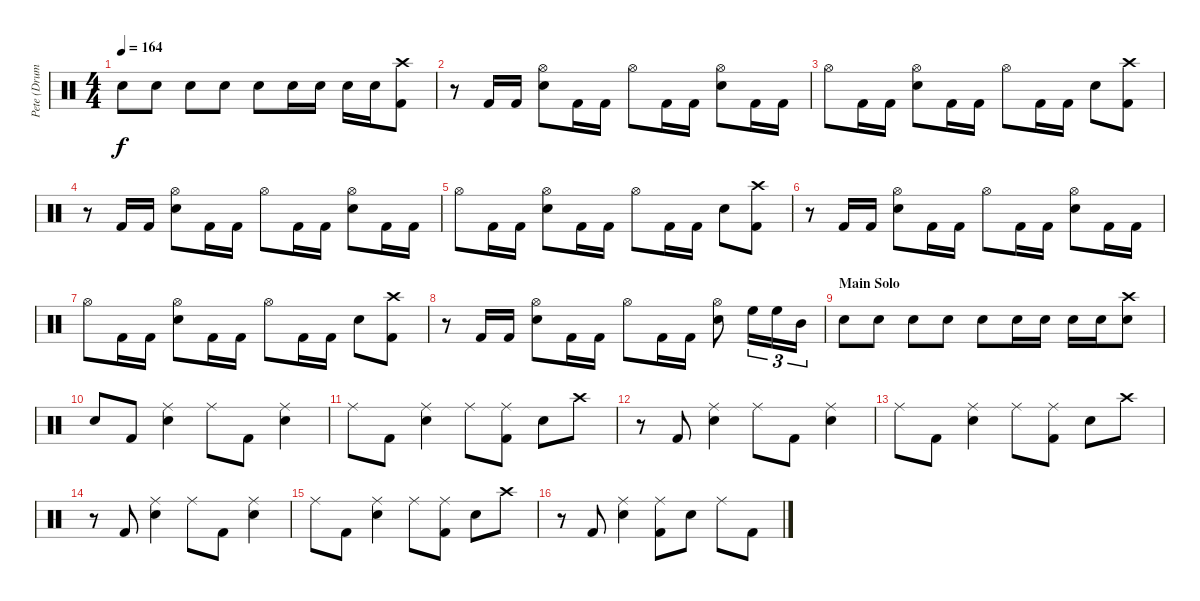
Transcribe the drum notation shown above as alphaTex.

\track ("Pete (Drums)" "Pete (Drum") {instrument percussion}
\staff {score}
\articulation defaults
\ts (4 4)
\tempo 164
\clef neutral
\ks c "Snare (hit) 2".8{dy f} "Snare (hit) 2".8 "Snare (hit) 2".8 "Snare (hit) 2".8 "Snare (hit) 2".8 "Snare (hit) 2".16 "Snare (hit) 2".16 "Snare (hit) 2".16 "Snare (hit) 2".16
("Crash high (hit)" "Kick (hit) 2").8 |
r.8 "Kick (hit) 2".16 "Kick (hit) 2".16 ("Hi-Hat (open)" "Snare (hit) 2").8 "Kick (hit) 2".16 "Kick (hit) 2".16 "Hi-Hat (open)".8 "Kick (hit) 2".16 "Kick (hit) 2".16 ("Hi-Hat (open)" "Snare (hit) 2").8 "Kick (hit) 2".16 "Kick (hit) 2".16 |
"Hi-Hat (open)".8 "Kick (hit) 2".16 "Kick (hit) 2".16 ("Hi-Hat (open)" "Snare (hit) 2").8 "Kick (hit) 2".16 "Kick (hit) 2".16 "Hi-Hat (open)".8 "Kick (hit) 2".16 "Kick (hit) 2".16 "Snare (hit) 2".8 ("Crash high (hit)" "Kick (hit) 2").8 |
r.8 "Kick (hit) 2".16 "Kick (hit) 2".16 ("Hi-Hat (open)" "Snare (hit) 2").8 "Kick (hit) 2".16 "Kick (hit) 2".16 "Hi-Hat (open)".8 "Kick (hit) 2".16 "Kick (hit) 2".16 ("Hi-Hat (open)" "Snare (hit) 2").8 "Kick (hit) 2".16 "Kick (hit) 2".16 |
"Hi-Hat (open)".8 "Kick (hit) 2".16 "Kick (hit) 2".16 ("Hi-Hat (open)" "Snare (hit) 2").8 "Kick (hit) 2".16 "Kick (hit) 2".16 "Hi-Hat (open)".8 "Kick (hit) 2".16 "Kick (hit) 2".16 "Snare (hit) 2".8 ("Crash high (hit)" "Kick (hit) 2").8 |
r.8 "Kick (hit) 2".16 "Kick (hit) 2".16 ("Hi-Hat (open)" "Snare (hit) 2").8 "Kick (hit) 2".16 "Kick (hit) 2".16 "Hi-Hat (open)".8 "Kick (hit) 2".16 "Kick (hit) 2".16 ("Hi-Hat (open)" "Snare (hit) 2").8 "Kick (hit) 2".16 "Kick (hit) 2".16 |
"Hi-Hat (open)".8 "Kick (hit) 2".16 "Kick (hit) 2".16 ("Hi-Hat (open)" "Snare (hit) 2").8 "Kick (hit) 2".16 "Kick (hit) 2".16 "Hi-Hat (open)".8 "Kick (hit) 2".16 "Kick (hit) 2".16 "Snare (hit) 2".8 ("Crash high (hit)" "Kick (hit) 2").8 |
r.8 "Kick (hit) 2".16 "Kick (hit) 2".16 ("Hi-Hat (open)" "Snare (hit) 2").8 "Kick (hit) 2".16 "Kick (hit) 2".16 "Hi-Hat (open)".8 "Kick (hit) 2".16 "Kick (hit) 2".16 ("Hi-Hat (open)" "Snare (hit) 2").8 "High Floor Tom (hit)".16{tu (3 2)} "High Floor Tom (hit)".16{tu (3 2)} "Mid Tom (hit)".16{tu (3 2)} |
\section ("" "Main Solo")
"Snare (hit) 2".8 "Snare (hit) 2".8 "Snare (hit) 2".8 "Snare (hit) 2".8 "Snare (hit) 2".8 "Snare (hit) 2".16 "Snare (hit) 2".16 "Snare (hit) 2".16 "Snare (hit) 2".16 ("Crash high (hit)" "Snare (hit) 2").8 |
"Snare (hit) 2".8 "Kick (hit) 2".8 ("Ride (middle)" "Snare (hit) 2").4 "Ride (middle)".8 "Kick (hit) 2".8 ("Ride (middle)" "Snare (hit) 2").4 |
"Ride (middle)".8 "Kick (hit) 2".8 ("Ride (middle)" "Snare (hit) 2").4 "Ride (middle)".8 ("Ride (middle)" "Kick (hit) 2").8 "Snare (hit) 2".8 "Crash high (hit)".8 |
r.8 "Kick (hit) 2".8 ("Ride (middle)" "Snare (hit) 2").4 "Ride (middle)".8 "Kick (hit) 2".8 ("Ride (middle)" "Snare (hit) 2").4 |
"Ride (middle)".8 "Kick (hit) 2".8 ("Ride (middle)" "Snare (hit) 2").4 "Ride (middle)".8 ("Ride (middle)" "Kick (hit) 2").8 "Snare (hit) 2".8 "Crash high (hit)".8 |
r.8 "Kick (hit) 2".8 ("Ride (middle)" "Snare (hit) 2").4 "Ride (middle)".8 "Kick (hit) 2".8 ("Ride (middle)" "Snare (hit) 2").4 |
"Ride (middle)".8 "Kick (hit) 2".8 ("Ride (middle)" "Snare (hit) 2").4 "Ride (middle)".8 ("Ride (middle)" "Kick (hit) 2").8 "Snare (hit) 2".8 "Crash high (hit)".8 |
r.8 "Kick (hit) 2".8 ("Ride (middle)" "Snare (hit) 2").4 ("Ride (middle)" "Kick (hit) 2").8 "Snare (hit) 2".8 "Ride (middle)".8 "Kick (hit) 2".8
